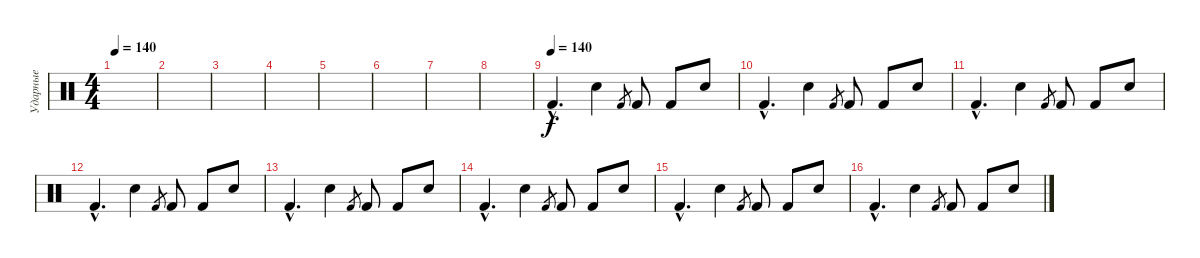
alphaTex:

\track ("Ударные" "Ударные") {instrument percussion}
\staff {score}
\articulation defaults
\ts (4 4)
\tempo 140
\clef neutral
\ks c
|
|
|
|
|
|
|
|
\tempo (140)
"Kick (hit) 2"{hac}.4{d} "Hand Clap (hit)".4 "Kick (hit) 2".8{gr} "Kick (hit) 2".8 "Kick (hit) 2".8 "Hand Clap (hit)".8 |
"Kick (hit) 2"{hac}.4{d} "Hand Clap (hit)".4 "Kick (hit) 2".8{gr} "Kick (hit) 2".8 "Kick (hit) 2".8 "Hand Clap (hit)".8 |
"Kick (hit) 2"{hac}.4{d} "Hand Clap (hit)".4 "Kick (hit) 2".8{gr} "Kick (hit) 2".8 "Kick (hit) 2".8 "Hand Clap (hit)".8 |
"Kick (hit) 2"{hac}.4{d} "Hand Clap (hit)".4 "Kick (hit) 2".8{gr} "Kick (hit) 2".8 "Kick (hit) 2".8 "Hand Clap (hit)".8 |
"Kick (hit) 2"{hac}.4{d} "Hand Clap (hit)".4 "Kick (hit) 2".8{gr} "Kick (hit) 2".8 "Kick (hit) 2".8 "Hand Clap (hit)".8 |
"Kick (hit) 2"{hac}.4{d} "Hand Clap (hit)".4 "Kick (hit) 2".8{gr} "Kick (hit) 2".8 "Kick (hit) 2".8 "Hand Clap (hit)".8 |
"Kick (hit) 2"{hac}.4{d} "Hand Clap (hit)".4 "Kick (hit) 2".8{gr} "Kick (hit) 2".8 "Kick (hit) 2".8 "Hand Clap (hit)".8 |
"Kick (hit) 2"{hac}.4{d} "Hand Clap (hit)".4 "Kick (hit) 2".8{gr} "Kick (hit) 2".8 "Kick (hit) 2".8 "Hand Clap (hit)".8
